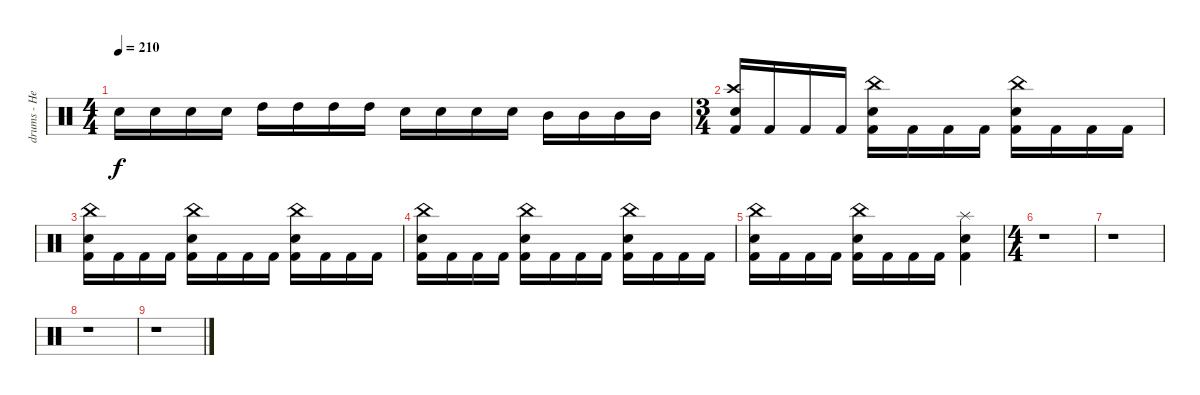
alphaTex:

\track ("drums - Heikki" "drums - He") {instrument percussion}
\staff {score}
\articulation defaults
\ts (4 4)
\tempo 210
\clef neutral
\ks c "Snare (hit) 2".16{dy f} "Snare (hit) 2".16 "Snare (hit) 2".16 "Snare (hit) 2".16 "High Tom (hit)".16 "High Tom (hit)".16 "High Tom (hit)".16 "High Tom (hit)".16 "Snare (hit) 2".16 "Snare (hit) 2".16 "Snare (hit) 2".16 "Snare (hit) 2".16 "Mid Tom (hit)".16 "Mid Tom (hit)".16 "Mid Tom (hit)".16 "Mid Tom (hit)".16
|
\ts (3 4)
("Crash high (hit)" "Snare (hit) 2" "Kick (hit) 2").16 "Kick (hit) 2".16 "Kick (hit) 2".16 "Kick (hit) 2".16 ("China (hit)" "Snare (hit) 2" "Kick (hit) 2").16 "Kick (hit) 2".16 "Kick (hit) 2".16 "Kick (hit) 2".16 ("China (hit)" "Snare (hit) 2" "Kick (hit) 2").16 "Kick (hit) 2".16 "Kick (hit) 2".16 "Kick (hit) 2".16 |
("China (hit)" "Snare (hit) 2" "Kick (hit) 2").16 "Kick (hit) 2".16 "Kick (hit) 2".16 "Kick (hit) 2".16 ("China (hit)" "Snare (hit) 2" "Kick (hit) 2").16 "Kick (hit) 2".16 "Kick (hit) 2".16 "Kick (hit) 2".16 ("China (hit)" "Snare (hit) 2" "Kick (hit) 2").16 "Kick (hit) 2".16 "Kick (hit) 2".16 "Kick (hit) 2".16 |
("China (hit)" "Snare (hit) 2" "Kick (hit) 2").16 "Kick (hit) 2".16 "Kick (hit) 2".16 "Kick (hit) 2".16 ("China (hit)" "Snare (hit) 2" "Kick (hit) 2").16 "Kick (hit) 2".16 "Kick (hit) 2".16 "Kick (hit) 2".16 ("China (hit)" "Snare (hit) 2" "Kick (hit) 2").16 "Kick (hit) 2".16 "Kick (hit) 2".16 "Kick (hit) 2".16 |
("China (hit)" "Snare (hit) 2" "Kick (hit) 2").16 "Kick (hit) 2".16 "Kick (hit) 2".16 "Kick (hit) 2".16 ("China (hit)" "Snare (hit) 2" "Kick (hit) 2").16 "Kick (hit) 2".16 "Kick (hit) 2".16 "Kick (hit) 2".16 ("Splash (hit)" "Snare (hit) 2" "Kick (hit) 2").4 |
\ts (4 4)
r.1 |
r.1 |
r.1 |
r.1
